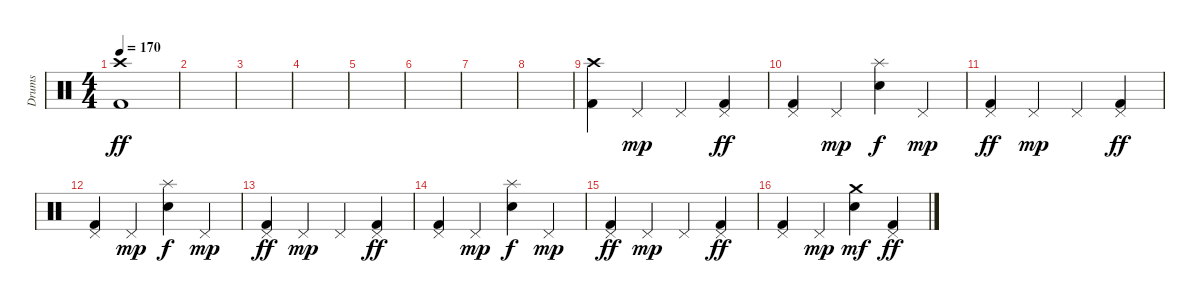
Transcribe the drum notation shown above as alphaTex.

\track ("Drums" "Drums") {instrument percussion}
\staff {score}
\articulation defaults
\ts (4 4)
\tempo 170
\clef neutral
\ks c
("Crash high (hit)" "Kick (hit) 2").1{dy ff} |
|
|
|
|
|
|
|
("Crash high (hit)" "Kick (hit) 2").4 "Pedal Hi-Hat (hit)".4{dy mp} "Pedal Hi-Hat (hit)".4 ("Pedal Hi-Hat (hit)" "Kick (hit) 2").4{dy ff} |
("Pedal Hi-Hat (hit)" "Kick (hit) 2").4 "Pedal Hi-Hat (hit)".4{dy mp} ("Splash (hit)" "Electric Snare (hit)").4{dy f} "Pedal Hi-Hat (hit)".4{dy mp} |
("Pedal Hi-Hat (hit)" "Kick (hit) 2").4{dy ff} "Pedal Hi-Hat (hit)".4{dy mp} "Pedal Hi-Hat (hit)".4 ("Pedal Hi-Hat (hit)" "Kick (hit) 2").4{dy ff} |
("Pedal Hi-Hat (hit)" "Kick (hit) 2").4 "Pedal Hi-Hat (hit)".4{dy mp} ("Splash (hit)" "Electric Snare (hit)").4{dy f} "Pedal Hi-Hat (hit)".4{dy mp} |
("Pedal Hi-Hat (hit)" "Kick (hit) 2").4{dy ff} "Pedal Hi-Hat (hit)".4{dy mp} "Pedal Hi-Hat (hit)".4 ("Pedal Hi-Hat (hit)" "Kick (hit) 2").4{dy ff} |
("Pedal Hi-Hat (hit)" "Kick (hit) 2").4 "Pedal Hi-Hat (hit)".4{dy mp} ("Splash (hit)" "Electric Snare (hit)").4{dy f} "Pedal Hi-Hat (hit)".4{dy mp} |
("Pedal Hi-Hat (hit)" "Kick (hit) 2").4{dy ff} "Pedal Hi-Hat (hit)".4{dy mp} "Pedal Hi-Hat (hit)".4 ("Pedal Hi-Hat (hit)" "Kick (hit) 2").4{dy ff} |
("Pedal Hi-Hat (hit)" "Kick (hit) 2").4 "Pedal Hi-Hat (hit)".4{dy mp} ("Crash medium (hit)" "Electric Snare (hit)").4{dy mf} ("Pedal Hi-Hat (hit)" "Kick (hit) 2").4{dy ff}
